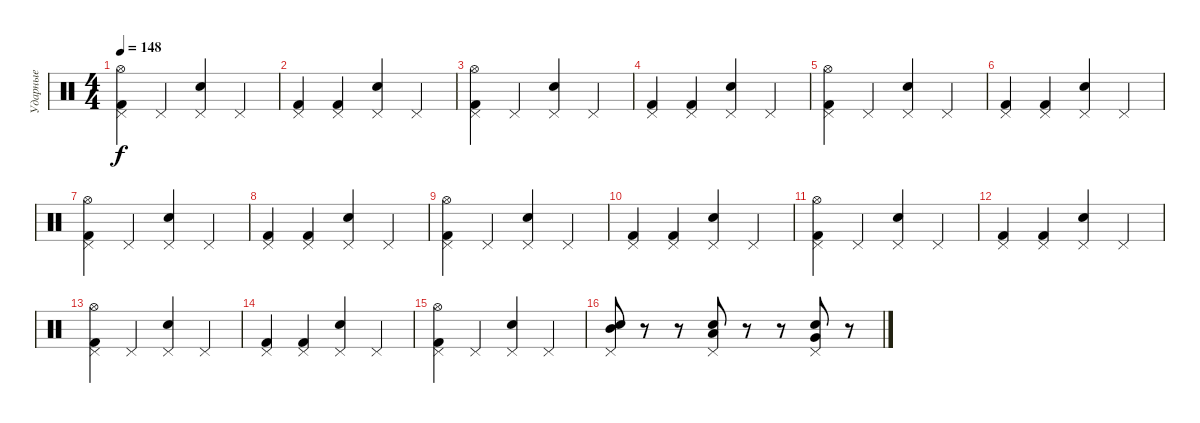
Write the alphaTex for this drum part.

\track ("Ударные" "Ударные") {instrument percussion}
\staff
\articulation defaults
\ts (4 4)
\tempo 148
\clef neutral
\ks c
("Kick (hit) 2" "Pedal Hi-Hat (hit)" "Hi-Hat (open)").4{dy f} "Pedal Hi-Hat (hit)".4 ("Snare (hit) 2" "Pedal Hi-Hat (hit)").4 "Pedal Hi-Hat (hit)".4 |
("Kick (hit) 2" "Pedal Hi-Hat (hit)").4 ("Kick (hit) 2" "Pedal Hi-Hat (hit)").4 ("Snare (hit) 2" "Pedal Hi-Hat (hit)").4 "Pedal Hi-Hat (hit)".4 |
("Kick (hit) 2" "Pedal Hi-Hat (hit)" "Hi-Hat (open)").4 "Pedal Hi-Hat (hit)".4 ("Snare (hit) 2" "Pedal Hi-Hat (hit)").4 "Pedal Hi-Hat (hit)".4 |
("Kick (hit) 2" "Pedal Hi-Hat (hit)").4 ("Kick (hit) 2" "Pedal Hi-Hat (hit)").4 ("Snare (hit) 2" "Pedal Hi-Hat (hit)").4 "Pedal Hi-Hat (hit)".4 |
("Kick (hit) 2" "Pedal Hi-Hat (hit)" "Hi-Hat (open)").4 "Pedal Hi-Hat (hit)".4 ("Snare (hit) 2" "Pedal Hi-Hat (hit)").4 "Pedal Hi-Hat (hit)".4 |
("Kick (hit) 2" "Pedal Hi-Hat (hit)").4 ("Kick (hit) 2" "Pedal Hi-Hat (hit)").4 ("Snare (hit) 2" "Pedal Hi-Hat (hit)").4 "Pedal Hi-Hat (hit)".4 |
("Kick (hit) 2" "Pedal Hi-Hat (hit)" "Hi-Hat (open)").4 "Pedal Hi-Hat (hit)".4 ("Snare (hit) 2" "Pedal Hi-Hat (hit)").4 "Pedal Hi-Hat (hit)".4 |
("Kick (hit) 2" "Pedal Hi-Hat (hit)").4 ("Kick (hit) 2" "Pedal Hi-Hat (hit)").4 ("Snare (hit) 2" "Pedal Hi-Hat (hit)").4 "Pedal Hi-Hat (hit)".4 |
("Kick (hit) 2" "Pedal Hi-Hat (hit)" "Hi-Hat (open)").4 "Pedal Hi-Hat (hit)".4 ("Snare (hit) 2" "Pedal Hi-Hat (hit)").4 "Pedal Hi-Hat (hit)".4 |
("Kick (hit) 2" "Pedal Hi-Hat (hit)").4 ("Kick (hit) 2" "Pedal Hi-Hat (hit)").4 ("Snare (hit) 2" "Pedal Hi-Hat (hit)").4 "Pedal Hi-Hat (hit)".4 |
("Kick (hit) 2" "Pedal Hi-Hat (hit)" "Hi-Hat (open)").4 "Pedal Hi-Hat (hit)".4 ("Snare (hit) 2" "Pedal Hi-Hat (hit)").4 "Pedal Hi-Hat (hit)".4 |
("Kick (hit) 2" "Pedal Hi-Hat (hit)").4 ("Kick (hit) 2" "Pedal Hi-Hat (hit)").4 ("Snare (hit) 2" "Pedal Hi-Hat (hit)").4 "Pedal Hi-Hat (hit)".4 |
("Kick (hit) 2" "Pedal Hi-Hat (hit)" "Hi-Hat (open)").4 "Pedal Hi-Hat (hit)".4 ("Snare (hit) 2" "Pedal Hi-Hat (hit)").4 "Pedal Hi-Hat (hit)".4 |
("Kick (hit) 2" "Pedal Hi-Hat (hit)").4 ("Kick (hit) 2" "Pedal Hi-Hat (hit)").4 ("Snare (hit) 2" "Pedal Hi-Hat (hit)").4 "Pedal Hi-Hat (hit)".4 |
("Kick (hit) 2" "Pedal Hi-Hat (hit)" "Hi-Hat (open)").4 "Pedal Hi-Hat (hit)".4 ("Snare (hit) 2" "Pedal Hi-Hat (hit)").4 "Pedal Hi-Hat (hit)".4 |
("Snare (hit) 2" "Pedal Hi-Hat (hit)" "Mid Tom (hit)").8 r.8 r.8 ("Snare (hit) 2" "Pedal Hi-Hat (hit)" "Low Tom (hit)").8 r.8 r.8 ("Snare (hit) 2" "Pedal Hi-Hat (hit)" "Very Low Tom (hit)").8 r.8
